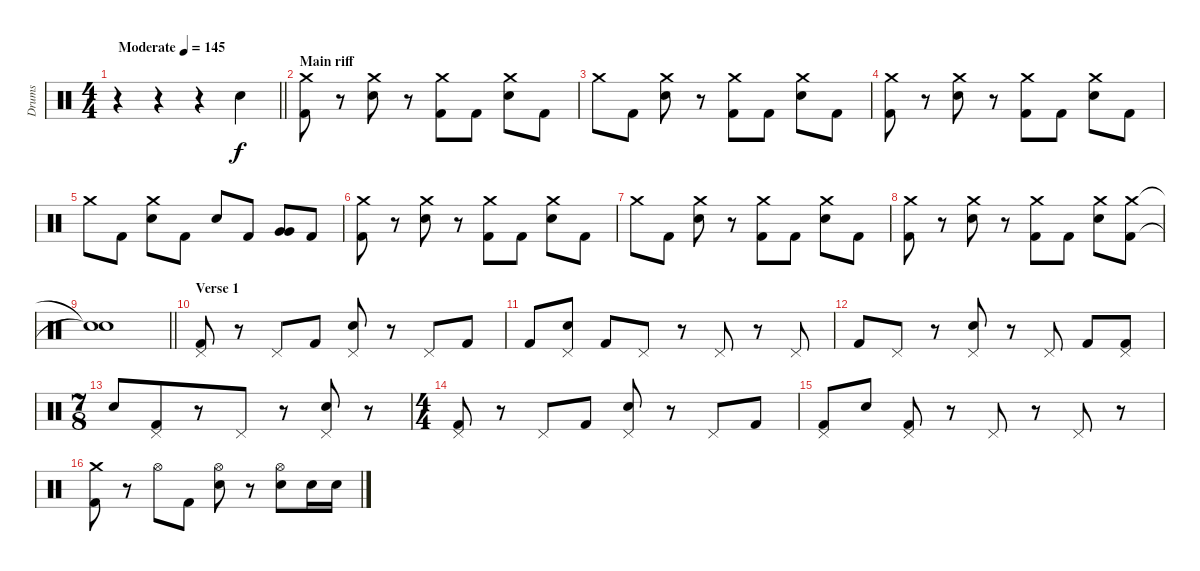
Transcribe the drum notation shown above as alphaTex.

\track ("Drums" "Drums") {instrument percussion}
\staff {score}
\articulation defaults
\ts (4 4)
\tempo (145 "Moderate")
\clef neutral
\barLineRight lightlight
\ks c
r.4{dy f} r.4 r.4 "Electric Snare (hit)".4 |
\section ("" "Main riff")
("Crash medium (hit)" "Kick (hit) 2").8 r.8 ("Crash medium (hit)" "Electric Snare (hit)").8 r.8 ("Crash medium (hit)" "Kick (hit) 2").8 "Kick (hit) 2".8 ("Crash medium (hit)" "Electric Snare (hit)").8 "Kick (hit) 2".8 |
"Crash medium (hit)".8 "Kick (hit) 2".8 ("Crash medium (hit)" "Electric Snare (hit)").8 r.8 ("Crash medium (hit)" "Kick (hit) 2").8 "Kick (hit) 2".8 ("Crash medium (hit)" "Electric Snare (hit)").8 "Kick (hit) 2".8 |
("Crash medium (hit)" "Kick (hit) 2").8 r.8 ("Crash medium (hit)" "Electric Snare (hit)").8 r.8 ("Crash medium (hit)" "Kick (hit) 2").8 "Kick (hit) 2".8 ("Crash medium (hit)" "Electric Snare (hit)").8 "Kick (hit) 2".8 |
"Crash medium (hit)".8 "Kick (hit) 2".8 ("Crash medium (hit)" "Electric Snare (hit)").8 "Kick (hit) 2".8 "Electric Snare (hit)".8 "Kick (hit) 2".8 ("Very Low Tom (hit)" "Very Low Tom (hit)").8 "Kick (hit) 2".8 |
("Crash medium (hit)" "Kick (hit) 2").8 r.8 ("Crash medium (hit)" "Electric Snare (hit)").8 r.8 ("Crash medium (hit)" "Kick (hit) 2").8 "Kick (hit) 2".8 ("Crash medium (hit)" "Electric Snare (hit)").8 "Kick (hit) 2".8 |
"Crash medium (hit)".8 "Kick (hit) 2".8 ("Crash medium (hit)" "Electric Snare (hit)").8 r.8 ("Crash medium (hit)" "Kick (hit) 2").8 "Kick (hit) 2".8 ("Crash medium (hit)" "Electric Snare (hit)").8 "Kick (hit) 2".8 |
("Crash medium (hit)" "Kick (hit) 2").8 r.8 ("Crash medium (hit)" "Electric Snare (hit)").8 r.8 ("Crash medium (hit)" "Kick (hit) 2").8 "Kick (hit) 2".8 ("Crash medium (hit)" "Electric Snare (hit)").8 ("Crash medium (hit)" "Kick (hit) 2").8 |
\barLineRight lightlight
("Snare (hit)"{t} "Snare (hit)"{t}).1 |
\section ("" "Verse 1")
("Pedal Hi-Hat (hit)" "Kick (hit) 2").8{volume 8} r.8 "Pedal Hi-Hat (hit)".8 "Kick (hit) 2".8 ("Pedal Hi-Hat (hit)" "Electric Snare (hit)").8 r.8 "Pedal Hi-Hat (hit)".8 "Kick (hit) 2".8 |
"Kick (hit) 2".8 ("Pedal Hi-Hat (hit)" "Electric Snare (hit)").8 "Kick (hit) 2".8 "Pedal Hi-Hat (hit)".8 r.8 "Pedal Hi-Hat (hit)".8 r.8 "Pedal Hi-Hat (hit)".8 |
"Kick (hit) 2".8 "Pedal Hi-Hat (hit)".8 r.8 ("Pedal Hi-Hat (hit)" "Electric Snare (hit)").8 r.8 "Pedal Hi-Hat (hit)".8 "Kick (hit) 2".8 ("Pedal Hi-Hat (hit)" "Kick (hit) 2").8 |
\ts (7 8)
"Electric Snare (hit)".8 ("Pedal Hi-Hat (hit)" "Kick (hit) 2").8 r.8 "Pedal Hi-Hat (hit)".8 r.8 ("Pedal Hi-Hat (hit)" "Electric Snare (hit)").8 r.8 |
\ts (4 4)
("Pedal Hi-Hat (hit)" "Kick (hit) 2").8 r.8 "Pedal Hi-Hat (hit)".8 "Kick (hit) 2".8 ("Pedal Hi-Hat (hit)" "Electric Snare (hit)").8 r.8 "Pedal Hi-Hat (hit)".8 "Kick (hit) 2".8 |
("Pedal Hi-Hat (hit)" "Kick (hit) 2").8 "Electric Snare (hit)".8 ("Pedal Hi-Hat (hit)" "Kick (hit) 2").8 r.8 "Pedal Hi-Hat (hit)".8 r.8 "Pedal Hi-Hat (hit)".8 r.8 |
("Crash medium (hit)" "Kick (hit) 2").8{volume 16} r.8 "Hi-Hat (open)".8 "Kick (hit) 2".8 ("Hi-Hat (open)" "Electric Snare (hit)").8 r.8 ("Hi-Hat (open)" "Electric Snare (hit)").8 "Electric Snare (hit)".16 "Electric Snare (hit)".16
